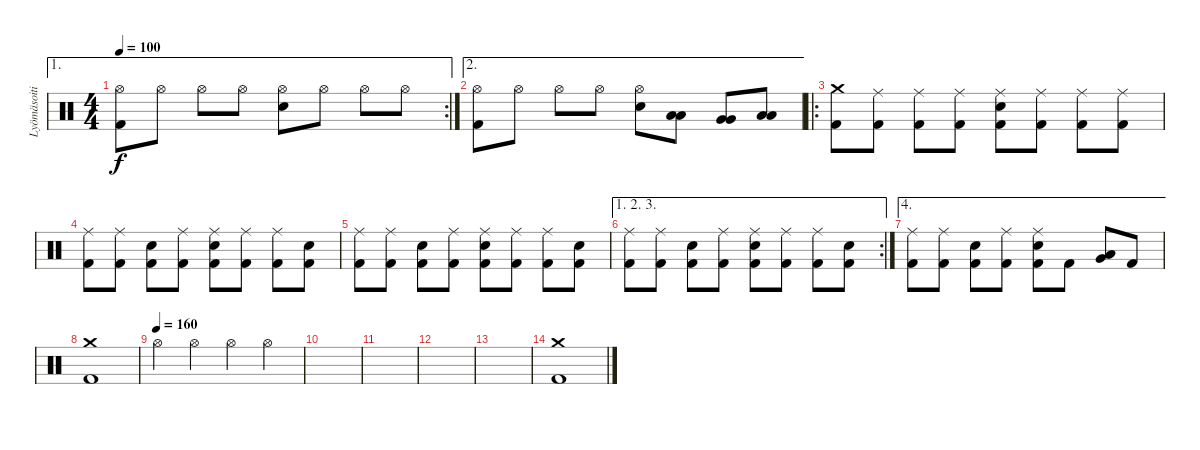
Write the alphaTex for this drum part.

\track ("Lyömäsoitin" "Lyömäsoiti") {instrument percussion}
\staff {score}
\articulation defaults
\ae 1
\rc 2
\ts (4 4)
\tempo 100
\clef neutral
\ks c
("Hi-Hat (open)" "Kick (hit) 2").8{dy f} "Hi-Hat (open)".8 "Hi-Hat (open)".8 "Hi-Hat (open)".8 ("Hi-Hat (open)" "Electric Snare (hit)").8 "Hi-Hat (open)".8 "Hi-Hat (open)".8 "Hi-Hat (open)".8 |
\ae 2
("Hi-Hat (open)" "Kick (hit) 2").8 "Hi-Hat (open)".8 "Hi-Hat (open)".8 "Hi-Hat (open)".8 ("Hi-Hat (open)" "Electric Snare (hit)").8 ("Low Tom (hit)" "Low Tom (hit)").8 ("Very Low Tom (hit)" "Very Low Tom (hit)").8 ("Low Floor Tom (hit)" "Low Floor Tom (hit)").8 |
\ro
("Crash medium (hit)" "Kick (hit) 2").8 ("Ride (middle)" "Kick (hit) 2").8 ("Ride (middle)" "Kick (hit) 2").8 ("Ride (middle)" "Kick (hit) 2").8 ("Ride (middle)" "Electric Snare (hit)" "Kick (hit) 2").8 ("Ride (middle)" "Kick (hit) 2").8 ("Ride (middle)" "Kick (hit) 2").8 ("Ride (middle)" "Kick (hit) 2").8 |
("Ride (middle)" "Kick (hit) 2").8 ("Ride (middle)" "Kick (hit) 2").8 ("Snare (hit)" "Kick (hit) 2").8 ("Ride (middle)" "Kick (hit) 2").8 ("Ride (middle)" "Electric Snare (hit)" "Kick (hit) 2").8 ("Ride (middle)" "Kick (hit) 2").8 ("Ride (middle)" "Kick (hit) 2").8 ("Snare (hit)" "Kick (hit) 2").8 |
("Ride (middle)" "Kick (hit) 2").8 ("Ride (middle)" "Kick (hit) 2").8 ("Snare (hit)" "Kick (hit) 2").8 ("Ride (middle)" "Kick (hit) 2").8 ("Ride (middle)" "Electric Snare (hit)" "Kick (hit) 2").8 ("Ride (middle)" "Kick (hit) 2").8 ("Ride (middle)" "Kick (hit) 2").8 ("Snare (hit)" "Kick (hit) 2").8 |
\ae (1 2 3)
\rc 2
("Ride (middle)" "Kick (hit) 2").8 ("Ride (middle)" "Kick (hit) 2").8 ("Snare (hit)" "Kick (hit) 2").8 ("Ride (middle)" "Kick (hit) 2").8 ("Ride (middle)" "Electric Snare (hit)" "Kick (hit) 2").8 ("Ride (middle)" "Kick (hit) 2").8 ("Ride (middle)" "Kick (hit) 2").8 ("Snare (hit)" "Kick (hit) 2").8 |
\ae 4
("Ride (middle)" "Kick (hit) 2").8 ("Ride (middle)" "Kick (hit) 2").8 ("Snare (hit)" "Kick (hit) 2").8 ("Ride (middle)" "Kick (hit) 2").8 ("Ride (middle)" "Electric Snare (hit)" "Kick (hit) 2").8 "Kick (hit) 2".8 ("Very Low Tom (hit)" "Low Floor Tom (hit)").8 "Kick (hit) 2".8 |
("Crash medium (hit)" "Kick (hit) 2").1 |
\tempo (160)
"Hi-Hat (open)".4 "Hi-Hat (open)".4 "Hi-Hat (open)".4 "Hi-Hat (open)".4 |
|
|
|
|
("Crash medium (hit)" "Kick (hit) 2").1
